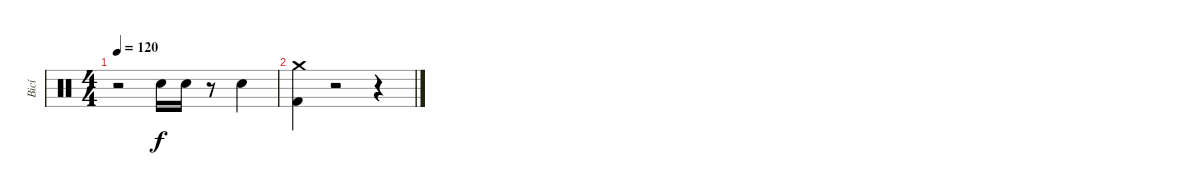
\track ("Bicí" "Bicí") {instrument percussion}
\staff {score}
\articulation defaults
\ts (4 4)
\tempo 120
\clef neutral
\ks c
r.2{dy mp} "Electric Snare (hit)".16{dy f} "Electric Snare (hit)".16 r.8 "Electric Snare (hit)".4 |
("Crash medium (hit)" "Kick (hit) 2").4 r.2 r.4
